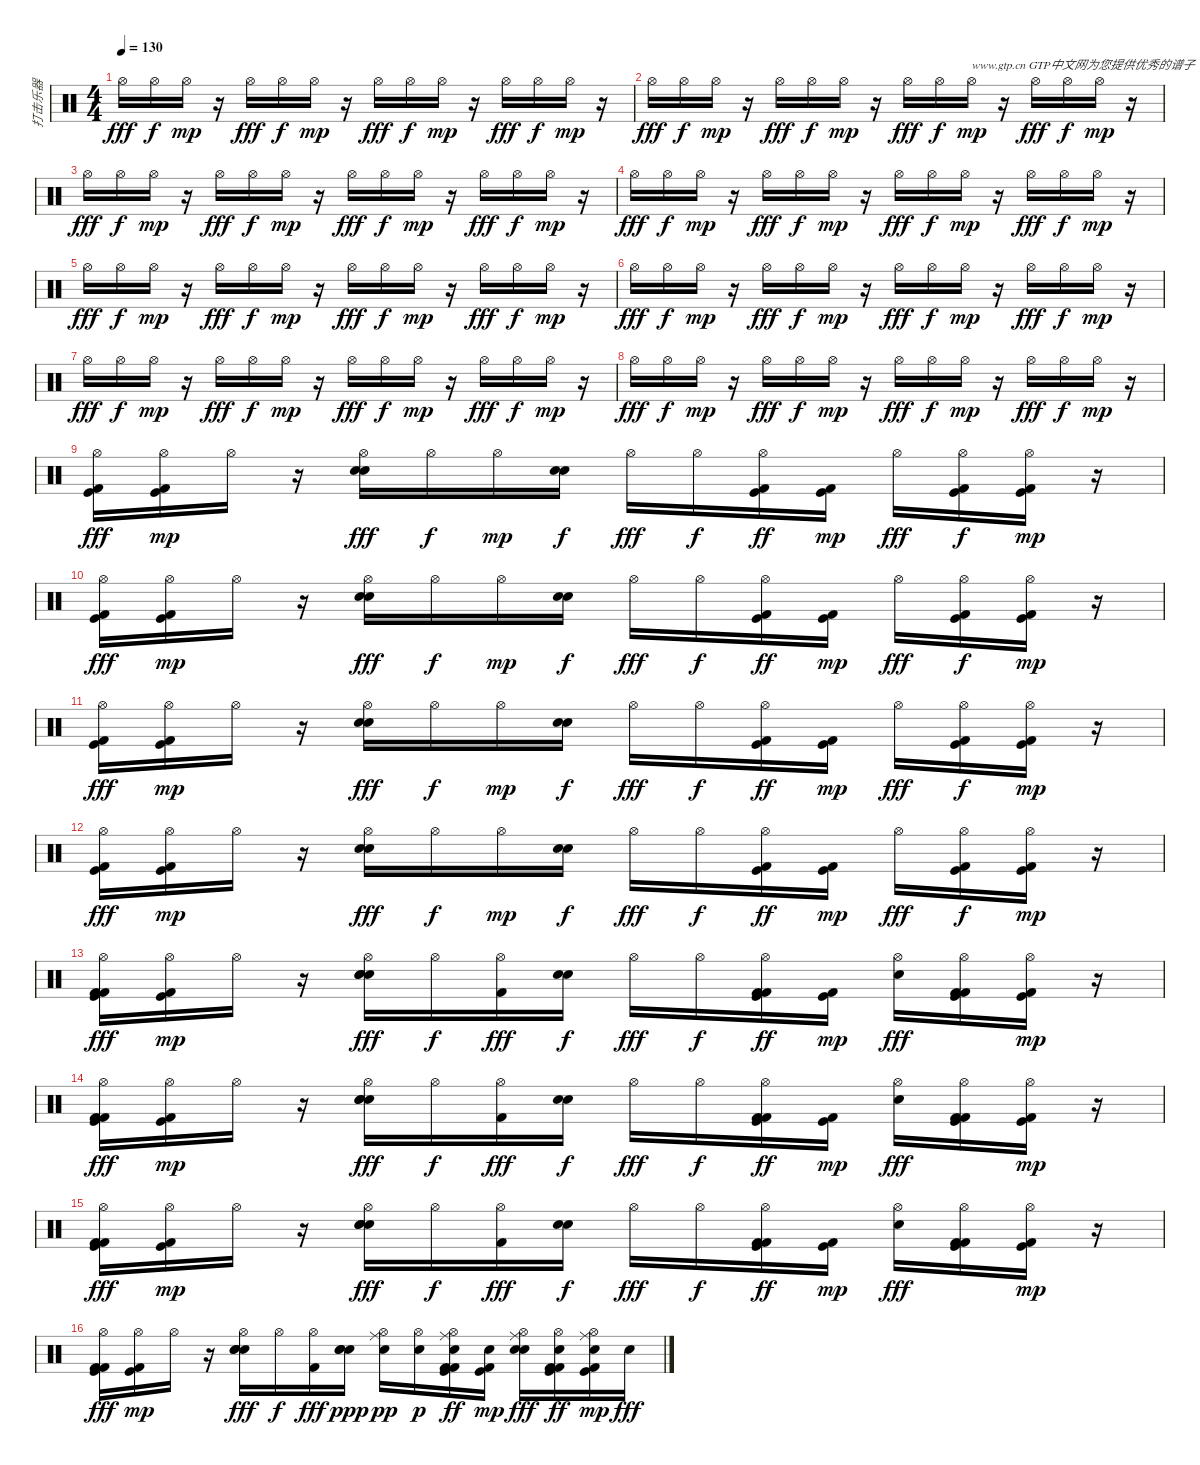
\track ("打击乐器" "打击乐器") {instrument percussion}
\staff {score}
\articulation defaults
\ts (4 4)
\tempo 130
\clef neutral
\ks c "Hi-Hat (open)".16{dy fff} "Hi-Hat (open)".16{dy f} "Hi-Hat (open)".16{dy mp}
r.16 "Hi-Hat (open)".16{dy fff} "Hi-Hat (open)".16{dy f} "Hi-Hat (open)".16{dy mp} r.16 "Hi-Hat (open)".16{dy fff} "Hi-Hat (open)".16{dy f} "Hi-Hat (open)".16{dy mp} r.16 "Hi-Hat (open)".16{dy fff} "Hi-Hat (open)".16{dy f} "Hi-Hat (open)".16{dy mp} r.16 |
"Hi-Hat (open)".16{dy fff} "Hi-Hat (open)".16{dy f} "Hi-Hat (open)".16{dy mp} r.16 "Hi-Hat (open)".16{dy fff} "Hi-Hat (open)".16{dy f} "Hi-Hat (open)".16{dy mp} r.16 "Hi-Hat (open)".16{dy fff} "Hi-Hat (open)".16{dy f} "Hi-Hat (open)".16{txt "www.gtp.cn GTP中文网为您提供优秀的谱子" dy mp} r.16 "Hi-Hat (open)".16{dy fff} "Hi-Hat (open)".16{dy f} "Hi-Hat (open)".16{dy mp} r.16 |
"Hi-Hat (open)".16{dy fff} "Hi-Hat (open)".16{dy f} "Hi-Hat (open)".16{dy mp} r.16 "Hi-Hat (open)".16{dy fff} "Hi-Hat (open)".16{dy f} "Hi-Hat (open)".16{dy mp} r.16 "Hi-Hat (open)".16{dy fff} "Hi-Hat (open)".16{dy f} "Hi-Hat (open)".16{dy mp} r.16 "Hi-Hat (open)".16{dy fff} "Hi-Hat (open)".16{dy f} "Hi-Hat (open)".16{dy mp} r.16 |
"Hi-Hat (open)".16{dy fff} "Hi-Hat (open)".16{dy f} "Hi-Hat (open)".16{dy mp} r.16 "Hi-Hat (open)".16{dy fff} "Hi-Hat (open)".16{dy f} "Hi-Hat (open)".16{dy mp} r.16 "Hi-Hat (open)".16{dy fff} "Hi-Hat (open)".16{dy f} "Hi-Hat (open)".16{dy mp} r.16 "Hi-Hat (open)".16{dy fff} "Hi-Hat (open)".16{dy f} "Hi-Hat (open)".16{dy mp} r.16 |
"Hi-Hat (open)".16{dy fff} "Hi-Hat (open)".16{dy f} "Hi-Hat (open)".16{dy mp} r.16 "Hi-Hat (open)".16{dy fff} "Hi-Hat (open)".16{dy f} "Hi-Hat (open)".16{dy mp} r.16 "Hi-Hat (open)".16{dy fff} "Hi-Hat (open)".16{dy f} "Hi-Hat (open)".16{dy mp} r.16 "Hi-Hat (open)".16{dy fff} "Hi-Hat (open)".16{dy f} "Hi-Hat (open)".16{dy mp} r.16 |
"Hi-Hat (open)".16{dy fff} "Hi-Hat (open)".16{dy f} "Hi-Hat (open)".16{dy mp} r.16 "Hi-Hat (open)".16{dy fff} "Hi-Hat (open)".16{dy f} "Hi-Hat (open)".16{dy mp} r.16 "Hi-Hat (open)".16{dy fff} "Hi-Hat (open)".16{dy f} "Hi-Hat (open)".16{dy mp} r.16 "Hi-Hat (open)".16{dy fff} "Hi-Hat (open)".16{dy f} "Hi-Hat (open)".16{dy mp} r.16 |
"Hi-Hat (open)".16{dy fff} "Hi-Hat (open)".16{dy f} "Hi-Hat (open)".16{dy mp} r.16 "Hi-Hat (open)".16{dy fff} "Hi-Hat (open)".16{dy f} "Hi-Hat (open)".16{dy mp} r.16 "Hi-Hat (open)".16{dy fff} "Hi-Hat (open)".16{dy f} "Hi-Hat (open)".16{dy mp} r.16 "Hi-Hat (open)".16{dy fff} "Hi-Hat (open)".16{dy f} "Hi-Hat (open)".16{dy mp} r.16 |
"Hi-Hat (open)".16{dy fff} "Hi-Hat (open)".16{dy f} "Hi-Hat (open)".16{dy mp} r.16 "Hi-Hat (open)".16{dy fff} "Hi-Hat (open)".16{dy f} "Hi-Hat (open)".16{dy mp} r.16 "Hi-Hat (open)".16{dy fff} "Hi-Hat (open)".16{dy f} "Hi-Hat (open)".16{dy mp} r.16 "Hi-Hat (open)".16{dy fff} "Hi-Hat (open)".16{dy f} "Hi-Hat (open)".16{dy mp} r.16 |
("Hi-Hat (open)" "Kick (hit)" "Kick (hit) 2").16{dy fff} ("Hi-Hat (open)" "Kick (hit)" "Kick (hit) 2").16{dy mp} "Hi-Hat (open)".16 r.16 ("Hi-Hat (open)" "Snare (hit) 2" "Electric Snare (hit)").16{dy fff} "Hi-Hat (open)".16{dy f} "Hi-Hat (open)".16{dy mp} ("Snare (hit) 2" "Electric Snare (hit)").16{dy f} "Hi-Hat (open)".16{dy fff} "Hi-Hat (open)".16{dy f} ("Hi-Hat (open)" "Kick (hit)" "Kick (hit) 2").16{dy ff} ("Kick (hit)" "Kick (hit) 2").16{dy mp} "Hi-Hat (open)".16{dy fff} ("Hi-Hat (open)" "Kick (hit)" "Kick (hit) 2").16{dy f} ("Hi-Hat (open)" "Kick (hit)" "Kick (hit) 2").16{dy mp} r.16 |
("Hi-Hat (open)" "Kick (hit)" "Kick (hit) 2").16{dy fff} ("Hi-Hat (open)" "Kick (hit)" "Kick (hit) 2").16{dy mp} "Hi-Hat (open)".16 r.16 ("Hi-Hat (open)" "Snare (hit) 2" "Electric Snare (hit)").16{dy fff} "Hi-Hat (open)".16{dy f} "Hi-Hat (open)".16{dy mp} ("Snare (hit) 2" "Electric Snare (hit)").16{dy f} "Hi-Hat (open)".16{dy fff} "Hi-Hat (open)".16{dy f} ("Hi-Hat (open)" "Kick (hit)" "Kick (hit) 2").16{dy ff} ("Kick (hit)" "Kick (hit) 2").16{dy mp} "Hi-Hat (open)".16{dy fff} ("Hi-Hat (open)" "Kick (hit)" "Kick (hit) 2").16{dy f} ("Hi-Hat (open)" "Kick (hit)" "Kick (hit) 2").16{dy mp} r.16 |
("Hi-Hat (open)" "Kick (hit)" "Kick (hit) 2").16{dy fff} ("Hi-Hat (open)" "Kick (hit)" "Kick (hit) 2").16{dy mp} "Hi-Hat (open)".16 r.16 ("Hi-Hat (open)" "Snare (hit) 2" "Electric Snare (hit)").16{dy fff} "Hi-Hat (open)".16{dy f} "Hi-Hat (open)".16{dy mp} ("Snare (hit) 2" "Electric Snare (hit)").16{dy f} "Hi-Hat (open)".16{dy fff} "Hi-Hat (open)".16{dy f} ("Hi-Hat (open)" "Kick (hit)" "Kick (hit) 2").16{dy ff} ("Kick (hit)" "Kick (hit) 2").16{dy mp} "Hi-Hat (open)".16{dy fff} ("Hi-Hat (open)" "Kick (hit)" "Kick (hit) 2").16{dy f} ("Hi-Hat (open)" "Kick (hit)" "Kick (hit) 2").16{dy mp} r.16 |
("Hi-Hat (open)" "Kick (hit)" "Kick (hit) 2").16{dy fff} ("Hi-Hat (open)" "Kick (hit)" "Kick (hit) 2").16{dy mp} "Hi-Hat (open)".16 r.16 ("Hi-Hat (open)" "Snare (hit) 2" "Electric Snare (hit)").16{dy fff} "Hi-Hat (open)".16{dy f} "Hi-Hat (open)".16{dy mp} ("Snare (hit) 2" "Electric Snare (hit)").16{dy f} "Hi-Hat (open)".16{dy fff} "Hi-Hat (open)".16{dy f} ("Hi-Hat (open)" "Kick (hit)" "Kick (hit) 2").16{dy ff} ("Kick (hit)" "Kick (hit) 2").16{dy mp} "Hi-Hat (open)".16{dy fff} ("Hi-Hat (open)" "Kick (hit)" "Kick (hit) 2").16{dy f} ("Hi-Hat (open)" "Kick (hit)" "Kick (hit) 2").16{dy mp} r.16 |
("Hi-Hat (open)" "Kick (hit) 2" "Kick (hit)" "Kick (hit) 2").16{dy fff} ("Hi-Hat (open)" "Kick (hit)" "Kick (hit) 2").16{dy mp} "Hi-Hat (open)".16 r.16 ("Hi-Hat (open)" "Snare (hit) 2" "Snare (hit) 2" "Electric Snare (hit)").16{dy fff} "Hi-Hat (open)".16{dy f} ("Hi-Hat (open)" "Kick (hit) 2").16{dy fff} ("Snare (hit) 2" "Electric Snare (hit)").16{dy f} "Hi-Hat (open)".16{dy fff} "Hi-Hat (open)".16{dy f} ("Hi-Hat (open)" "Kick (hit) 2" "Kick (hit)" "Kick (hit) 2").16{dy ff} ("Kick (hit)" "Kick (hit) 2").16{dy mp} ("Hi-Hat (open)" "Snare (hit) 2").16{dy fff} ("Hi-Hat (open)" "Kick (hit) 2" "Kick (hit)" "Kick (hit) 2").16 ("Hi-Hat (open)" "Kick (hit)" "Kick (hit) 2").16{dy mp} r.16 |
("Hi-Hat (open)" "Kick (hit) 2" "Kick (hit)" "Kick (hit) 2").16{dy fff} ("Hi-Hat (open)" "Kick (hit)" "Kick (hit) 2").16{dy mp} "Hi-Hat (open)".16 r.16 ("Hi-Hat (open)" "Snare (hit) 2" "Snare (hit) 2" "Electric Snare (hit)").16{dy fff} "Hi-Hat (open)".16{dy f} ("Hi-Hat (open)" "Kick (hit) 2").16{dy fff} ("Snare (hit) 2" "Electric Snare (hit)").16{dy f} "Hi-Hat (open)".16{dy fff} "Hi-Hat (open)".16{dy f} ("Hi-Hat (open)" "Kick (hit) 2" "Kick (hit)" "Kick (hit) 2").16{dy ff} ("Kick (hit)" "Kick (hit) 2").16{dy mp} ("Hi-Hat (open)" "Snare (hit) 2").16{dy fff} ("Hi-Hat (open)" "Kick (hit) 2" "Kick (hit)" "Kick (hit) 2").16 ("Hi-Hat (open)" "Kick (hit)" "Kick (hit) 2").16{dy mp} r.16 |
("Hi-Hat (open)" "Kick (hit) 2" "Kick (hit)" "Kick (hit) 2").16{dy fff} ("Hi-Hat (open)" "Kick (hit)" "Kick (hit) 2").16{dy mp} "Hi-Hat (open)".16 r.16 ("Hi-Hat (open)" "Snare (hit) 2" "Snare (hit) 2" "Electric Snare (hit)").16{dy fff} "Hi-Hat (open)".16{dy f} ("Hi-Hat (open)" "Kick (hit) 2").16{dy fff} ("Snare (hit) 2" "Electric Snare (hit)").16{dy f} "Hi-Hat (open)".16{dy fff} "Hi-Hat (open)".16{dy f} ("Hi-Hat (open)" "Kick (hit) 2" "Kick (hit)" "Kick (hit) 2").16{dy ff} ("Kick (hit)" "Kick (hit) 2").16{dy mp} ("Hi-Hat (open)" "Snare (hit) 2").16{dy fff} ("Hi-Hat (open)" "Kick (hit) 2" "Kick (hit)" "Kick (hit) 2").16 ("Hi-Hat (open)" "Kick (hit)" "Kick (hit) 2").16{dy mp} r.16 |
("Hi-Hat (open)" "Kick (hit) 2" "Kick (hit)" "Kick (hit) 2").16{dy fff} ("Hi-Hat (open)" "Kick (hit)" "Kick (hit) 2").16{dy mp} "Hi-Hat (open)".16 r.16 ("Hi-Hat (open)" "Snare (hit) 2" "Snare (hit) 2" "Electric Snare (hit)").16{dy fff} "Hi-Hat (open)".16{dy f} ("Hi-Hat (open)" "Kick (hit) 2").16{dy fff} ("Electric Snare (hit)" "Snare (hit) 2" "Electric Snare (hit)").16{dy ppp} ("Hi-Hat (open)" "Electric Snare (hit)" "Ride (middle)").16{dy pp} ("Hi-Hat (open)" "Electric Snare (hit)").16{dy p} ("Hi-Hat (open)" "Kick (hit) 2" "Electric Snare (hit)" "Kick (hit)" "Kick (hit) 2" "Ride (middle)").16{dy ff} ("Electric Snare (hit)" "Kick (hit)" "Kick (hit) 2").16{dy mp} ("Hi-Hat (open)" "Snare (hit) 2" "Electric Snare (hit)" "Ride (middle)").16{dy fff} ("Hi-Hat (open)" "Kick (hit) 2" "Electric Snare (hit)" "Kick (hit)" "Kick (hit) 2").16{dy ff} ("Hi-Hat (open)" "Electric Snare (hit)" "Kick (hit)" "Kick (hit) 2" "Ride (middle)").16{dy mp} "Electric Snare (hit)".16{dy fff}
